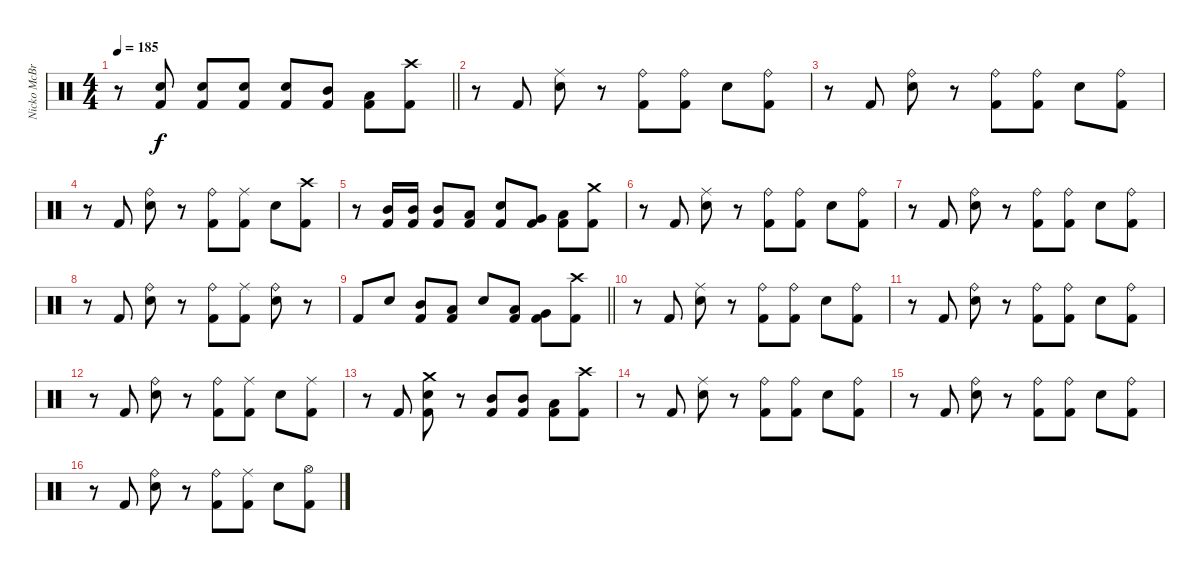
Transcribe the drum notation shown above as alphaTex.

\track ("Nicko McBrain" "Nicko McBr") {instrument percussion}
\staff {score}
\articulation defaults
\ts (4 4)
\tempo 185
\clef neutral
\barLineRight lightlight
\ks c
r.8{dy f} ("Snare (hit) 2" "Kick (hit) 2").8 ("Snare (hit) 2" "Kick (hit) 2").8 ("Snare (hit) 2" "Kick (hit) 2").8 ("Snare (hit) 2" "Kick (hit) 2").8 ("Mid Tom (hit)" "Kick (hit) 2").8 ("Low Tom (hit)" "Kick (hit) 2").8 ("Crash high (hit)" "Kick (hit) 2").8 |
r.8 "Kick (hit) 2".8 ("Ride (middle)" "Snare (hit) 2").8 r.8 ("Ride (bell)" "Kick (hit) 2").8 ("Ride (bell)" "Kick (hit) 2").8 "Snare (hit) 2".8 ("Ride (bell)" "Kick (hit) 2").8 |
r.8 "Kick (hit) 2".8 ("Ride (bell)" "Snare (hit) 2").8 r.8 ("Ride (bell)" "Kick (hit) 2").8 ("Ride (bell)" "Kick (hit) 2").8 "Snare (hit) 2".8 ("Ride (bell)" "Kick (hit) 2").8 |
r.8 "Kick (hit) 2".8 ("Ride (bell)" "Snare (hit) 2").8 r.8 ("Ride (bell)" "Kick (hit) 2").8 ("Ride (middle)" "Kick (hit) 2").8 "Snare (hit) 2".8 ("Crash high (hit)" "Kick (hit) 2").8 |
r.8 ("Mid Tom (hit)" "Kick (hit) 2").16 ("Mid Tom (hit)" "Kick (hit) 2").16 ("Mid Tom (hit)" "Kick (hit) 2").8 ("Low Tom (hit)" "Kick (hit) 2").8 ("Snare (hit) 2" "Kick (hit) 2").8 ("Very Low Tom (hit)" "Kick (hit) 2").8 ("Low Floor Tom (hit)" "Kick (hit) 2").8 ("Crash medium (hit)" "Kick (hit) 2").8 |
r.8 "Kick (hit) 2".8 ("Ride (middle)" "Snare (hit) 2").8 r.8 ("Ride (bell)" "Kick (hit) 2").8 ("Ride (bell)" "Kick (hit) 2").8 "Snare (hit) 2".8 ("Ride (bell)" "Kick (hit) 2").8 |
r.8 "Kick (hit) 2".8 ("Ride (bell)" "Snare (hit) 2").8 r.8 ("Ride (bell)" "Kick (hit) 2").8 ("Ride (bell)" "Kick (hit) 2").8 "Snare (hit) 2".8 ("Ride (bell)" "Kick (hit) 2").8 |
r.8 "Kick (hit) 2".8 ("Ride (bell)" "Snare (hit) 2").8 r.8 ("Ride (bell)" "Kick (hit) 2").8 ("Ride (middle)" "Kick (hit) 2").8 ("Ride (bell)" "Snare (hit) 2").8 r.8 |
\barLineRight lightlight "Kick (hit) 2".8 "Snare (hit) 2".8
("Mid Tom (hit)" "Kick (hit) 2").8 ("Low Tom (hit)" "Kick (hit) 2").8 "Snare (hit) 2".8 ("Low Tom (hit)" "Kick (hit) 2").8 ("Very Low Tom (hit)" "Kick (hit) 2").8 ("Crash high (hit)" "Kick (hit) 2").8 |
r.8 "Kick (hit) 2".8 ("Ride (middle)" "Snare (hit) 2").8 r.8 ("Ride (bell)" "Kick (hit) 2").8 ("Ride (bell)" "Kick (hit) 2").8 "Snare (hit) 2".8 ("Ride (bell)" "Kick (hit) 2").8 |
r.8 "Kick (hit) 2".8 ("Ride (bell)" "Snare (hit) 2").8 r.8 ("Ride (bell)" "Kick (hit) 2").8 ("Ride (bell)" "Kick (hit) 2").8 "Snare (hit) 2".8 ("Ride (bell)" "Kick (hit) 2").8 |
r.8 "Kick (hit) 2".8 ("Ride (bell)" "Snare (hit) 2").8 r.8 ("Ride (bell)" "Kick (hit) 2").8 ("Ride (middle)" "Kick (hit) 2").8 "Snare (hit) 2".8 ("Ride (middle)" "Kick (hit) 2").8 |
r.8 "Kick (hit) 2".8 ("Crash medium (hit)" "Snare (hit) 2" "Kick (hit) 2").8 r.8 ("Mid Tom (hit)" "Kick (hit) 2").8 ("Mid Tom (hit)" "Kick (hit) 2").8 ("Low Tom (hit)" "Kick (hit) 2").8 ("Crash high (hit)" "Kick (hit) 2").8 |
r.8 "Kick (hit) 2".8 ("Ride (middle)" "Snare (hit) 2").8 r.8 ("Ride (bell)" "Kick (hit) 2").8 ("Ride (bell)" "Kick (hit) 2").8 "Snare (hit) 2".8 ("Ride (bell)" "Kick (hit) 2").8 |
r.8 "Kick (hit) 2".8 ("Ride (bell)" "Snare (hit) 2").8 r.8 ("Ride (bell)" "Kick (hit) 2").8 ("Ride (bell)" "Kick (hit) 2").8 "Snare (hit) 2".8 ("Ride (bell)" "Kick (hit) 2").8 |
r.8 "Kick (hit) 2".8 ("Ride (bell)" "Snare (hit) 2").8 r.8 ("Ride (bell)" "Kick (hit) 2").8 ("Ride (middle)" "Kick (hit) 2").8 "Snare (hit) 2".8 ("Hi-Hat (open)" "Kick (hit) 2").8
